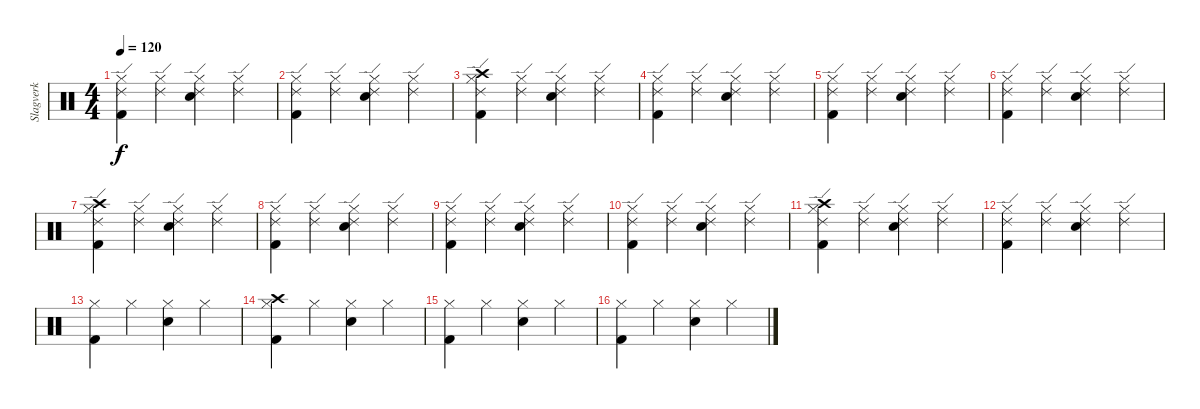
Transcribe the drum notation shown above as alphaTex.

\track ("Slagverk" "Slagverk") {instrument percussion}
\staff {score}
\articulation defaults
\ts (4 4)
\tempo 120
\clef neutral
\ks c
("Hi-Hat (closed)" "Kick (hit) 2" "Ride (edge) 2").4{dy f} ("Hi-Hat (closed)" "Ride (edge) 2").4 ("Hi-Hat (closed)" "Snare (hit) 2" "Ride (edge) 2").4 ("Hi-Hat (closed)" "Ride (edge) 2").4 |
("Hi-Hat (closed)" "Kick (hit) 2" "Ride (edge) 2").4 ("Hi-Hat (closed)" "Ride (edge) 2").4 ("Hi-Hat (closed)" "Snare (hit) 2" "Ride (edge) 2").4 ("Hi-Hat (closed)" "Ride (edge) 2").4 |
("Hi-Hat (closed)" "Kick (hit) 2" "Crash high (hit)" "Ride (edge) 2").4 ("Hi-Hat (closed)" "Ride (edge) 2").4 ("Hi-Hat (closed)" "Snare (hit) 2" "Ride (edge) 2").4 ("Hi-Hat (closed)" "Ride (edge) 2").4 |
("Hi-Hat (closed)" "Kick (hit) 2" "Ride (edge) 2").4 ("Hi-Hat (closed)" "Ride (edge) 2").4 ("Hi-Hat (closed)" "Snare (hit) 2" "Ride (edge) 2").4 ("Hi-Hat (closed)" "Ride (edge) 2").4 |
("Hi-Hat (closed)" "Kick (hit) 2" "Ride (edge) 2").4 ("Hi-Hat (closed)" "Ride (edge) 2").4 ("Hi-Hat (closed)" "Snare (hit) 2" "Ride (edge) 2").4 ("Hi-Hat (closed)" "Ride (edge) 2").4 |
("Hi-Hat (closed)" "Kick (hit) 2" "Ride (edge) 2").4 ("Hi-Hat (closed)" "Ride (edge) 2").4 ("Hi-Hat (closed)" "Snare (hit) 2" "Ride (edge) 2").4 ("Hi-Hat (closed)" "Ride (edge) 2").4 |
("Hi-Hat (closed)" "Kick (hit) 2" "Crash high (hit)" "Ride (edge) 2").4 ("Hi-Hat (closed)" "Ride (edge) 2").4 ("Hi-Hat (closed)" "Snare (hit) 2" "Ride (edge) 2").4 ("Hi-Hat (closed)" "Ride (edge) 2").4 |
("Hi-Hat (closed)" "Kick (hit) 2" "Ride (edge) 2").4 ("Hi-Hat (closed)" "Ride (edge) 2").4 ("Hi-Hat (closed)" "Snare (hit) 2" "Ride (edge) 2").4 ("Hi-Hat (closed)" "Ride (edge) 2").4 |
("Hi-Hat (closed)" "Kick (hit) 2" "Ride (edge) 2").4 ("Hi-Hat (closed)" "Ride (edge) 2").4 ("Hi-Hat (closed)" "Snare (hit) 2" "Ride (edge) 2").4 ("Hi-Hat (closed)" "Ride (edge) 2").4 |
("Hi-Hat (closed)" "Kick (hit) 2" "Ride (edge) 2").4 ("Hi-Hat (closed)" "Ride (edge) 2").4 ("Hi-Hat (closed)" "Snare (hit) 2" "Ride (edge) 2").4 ("Hi-Hat (closed)" "Ride (edge) 2").4 |
("Hi-Hat (closed)" "Kick (hit) 2" "Crash high (hit)" "Ride (edge) 2").4 ("Hi-Hat (closed)" "Ride (edge) 2").4 ("Hi-Hat (closed)" "Snare (hit) 2" "Ride (edge) 2").4 ("Hi-Hat (closed)" "Ride (edge) 2").4 |
("Hi-Hat (closed)" "Kick (hit) 2" "Ride (edge) 2").4 ("Hi-Hat (closed)" "Ride (edge) 2").4 ("Hi-Hat (closed)" "Snare (hit) 2" "Ride (edge) 2").4 ("Hi-Hat (closed)" "Ride (edge) 2").4 |
("Hi-Hat (closed)" "Kick (hit) 2").4 "Hi-Hat (closed)".4 ("Hi-Hat (closed)" "Snare (hit) 2").4 "Hi-Hat (closed)".4 |
("Hi-Hat (closed)" "Kick (hit) 2" "Crash high (hit)").4 "Hi-Hat (closed)".4 ("Hi-Hat (closed)" "Snare (hit) 2").4 "Hi-Hat (closed)".4 |
("Hi-Hat (closed)" "Kick (hit) 2").4 "Hi-Hat (closed)".4 ("Hi-Hat (closed)" "Snare (hit) 2").4 "Hi-Hat (closed)".4 |
("Hi-Hat (closed)" "Kick (hit) 2").4 "Hi-Hat (closed)".4 ("Hi-Hat (closed)" "Snare (hit) 2").4 "Hi-Hat (closed)".4
